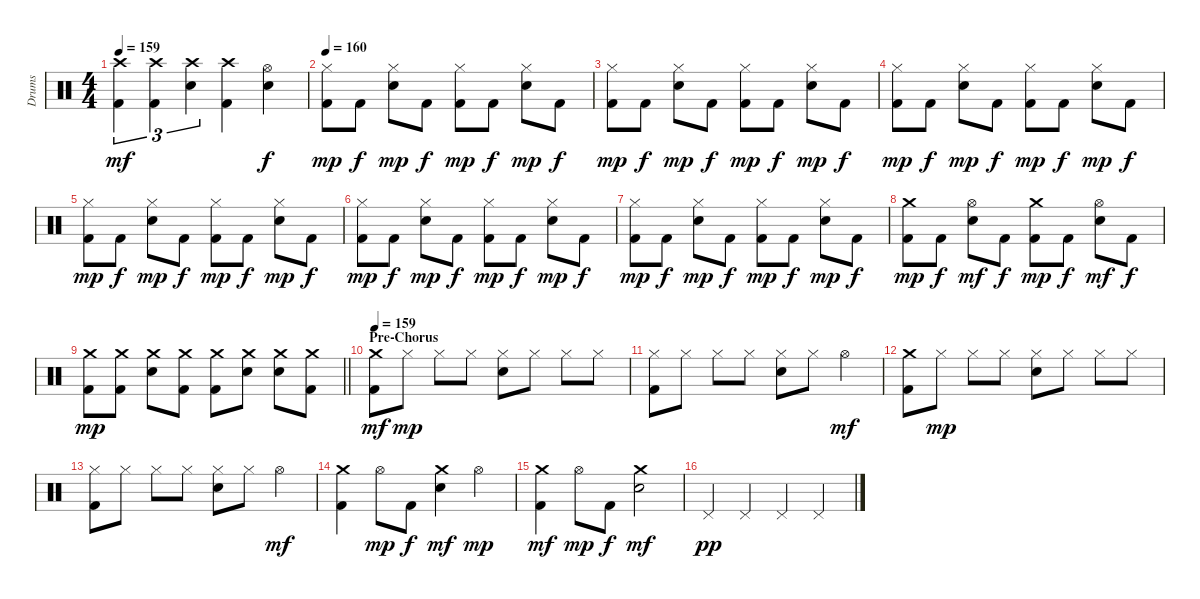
\track ("Drums" "Drums") {instrument percussion}
\staff {score}
\articulation defaults
\ts (4 4)
\tempo 159
\clef neutral
\ks c
("Crash high (hit)" "Kick (hit) 2").4{tu (3 2) dy mf} ("Crash high (hit)" "Kick (hit) 2").4{tu (3 2)} ("Crash high (hit)" "Electric Snare (hit)").4{tu (3 2)} ("Crash high (hit)" "Kick (hit) 2").4 ("Hi-Hat (open)" "Electric Snare (hit)").4{dy f} |
\tempo 160
("Hi-Hat (closed)" "Kick (hit) 2").8{dy mp} "Kick (hit) 2".8{dy f} ("Hi-Hat (closed)" "Electric Snare (hit)").8{dy mp} "Kick (hit) 2".8{dy f} ("Hi-Hat (closed)" "Kick (hit) 2").8{dy mp} "Kick (hit) 2".8{dy f} ("Hi-Hat (closed)" "Electric Snare (hit)").8{dy mp} "Kick (hit) 2".8{dy f} |
("Hi-Hat (closed)" "Kick (hit) 2").8{dy mp} "Kick (hit) 2".8{dy f} ("Hi-Hat (closed)" "Electric Snare (hit)").8{dy mp} "Kick (hit) 2".8{dy f} ("Hi-Hat (closed)" "Kick (hit) 2").8{dy mp} "Kick (hit) 2".8{dy f} ("Hi-Hat (closed)" "Electric Snare (hit)").8{dy mp} "Kick (hit) 2".8{dy f} |
("Hi-Hat (closed)" "Kick (hit) 2").8{dy mp} "Kick (hit) 2".8{dy f} ("Hi-Hat (closed)" "Electric Snare (hit)").8{dy mp} "Kick (hit) 2".8{dy f} ("Hi-Hat (closed)" "Kick (hit) 2").8{dy mp} "Kick (hit) 2".8{dy f} ("Hi-Hat (closed)" "Electric Snare (hit)").8{dy mp} "Kick (hit) 2".8{dy f} |
("Hi-Hat (closed)" "Kick (hit) 2").8{dy mp} "Kick (hit) 2".8{dy f} ("Hi-Hat (closed)" "Electric Snare (hit)").8{dy mp} "Kick (hit) 2".8{dy f} ("Hi-Hat (closed)" "Kick (hit) 2").8{dy mp} "Kick (hit) 2".8{dy f} ("Hi-Hat (closed)" "Electric Snare (hit)").8{dy mp} "Kick (hit) 2".8{dy f} |
("Hi-Hat (closed)" "Kick (hit) 2").8{dy mp} "Kick (hit) 2".8{dy f} ("Hi-Hat (closed)" "Electric Snare (hit)").8{dy mp} "Kick (hit) 2".8{dy f} ("Hi-Hat (closed)" "Kick (hit) 2").8{dy mp} "Kick (hit) 2".8{dy f} ("Hi-Hat (closed)" "Electric Snare (hit)").8{dy mp} "Kick (hit) 2".8{dy f} |
("Hi-Hat (closed)" "Kick (hit) 2").8{dy mp} "Kick (hit) 2".8{dy f} ("Hi-Hat (closed)" "Electric Snare (hit)").8{dy mp} "Kick (hit) 2".8{dy f} ("Hi-Hat (closed)" "Kick (hit) 2").8{dy mp} "Kick (hit) 2".8{dy f} ("Hi-Hat (closed)" "Electric Snare (hit)").8{dy mp} "Kick (hit) 2".8{dy f} |
("Crash medium (hit)" "Kick (hit) 2").8{dy mp} "Kick (hit) 2".8{dy f} ("Hi-Hat (open)" "Electric Snare (hit)").8{dy mf} "Kick (hit) 2".8{dy f} ("Crash medium (hit)" "Kick (hit) 2").8{dy mp} "Kick (hit) 2".8{dy f} ("Hi-Hat (open)" "Electric Snare (hit)").8{dy mf} "Kick (hit) 2".8{dy f} |
\barLineRight lightlight
("Crash medium (hit)" "Kick (hit) 2").8{dy mp} ("Crash medium (hit)" "Kick (hit) 2").8 ("Crash medium (hit)" "Electric Snare (hit)").8 ("Crash medium (hit)" "Kick (hit) 2").8 ("Crash medium (hit)" "Kick (hit) 2").8 ("Crash medium (hit)" "Electric Snare (hit)").8 ("Crash medium (hit)" "Electric Snare (hit)").8 ("Crash medium (hit)" "Kick (hit) 2").8 |
\section ("" "Pre-Chorus")
\tempo 159
("Crash medium (hit)" "Kick (hit) 2").8{dy mf} "Hi-Hat (closed)".8{dy mp} "Hi-Hat (closed)".8 "Hi-Hat (closed)".8 ("Hi-Hat (closed)" "Electric Snare (hit)").8 "Hi-Hat (closed)".8 "Hi-Hat (closed)".8 "Hi-Hat (closed)".8 |
("Hi-Hat (closed)" "Kick (hit) 2").8 "Hi-Hat (closed)".8 "Hi-Hat (closed)".8 "Hi-Hat (closed)".8 ("Hi-Hat (closed)" "Electric Snare (hit)").8 "Hi-Hat (closed)".8 "Hi-Hat (open)".4{dy mf} |
("Crash medium (hit)" "Kick (hit) 2").8 "Hi-Hat (closed)".8{dy mp} "Hi-Hat (closed)".8 "Hi-Hat (closed)".8 ("Hi-Hat (closed)" "Electric Snare (hit)").8 "Hi-Hat (closed)".8 "Hi-Hat (closed)".8 "Hi-Hat (closed)".8 |
("Hi-Hat (closed)" "Kick (hit) 2").8 "Hi-Hat (closed)".8 "Hi-Hat (closed)".8 "Hi-Hat (closed)".8 ("Hi-Hat (closed)" "Electric Snare (hit)").8 "Hi-Hat (closed)".8 "Hi-Hat (open)".4{dy mf} |
("Crash medium (hit)" "Kick (hit) 2").4 "Hi-Hat (open)".8{dy mp} "Kick (hit) 2".8{dy f} ("Crash medium (hit)" "Electric Snare (hit)").4{dy mf} "Hi-Hat (open)".4{dy mp} |
("Crash medium (hit)" "Kick (hit) 2").4{dy mf} "Hi-Hat (open)".8{dy mp} "Kick (hit) 2".8{dy f} ("Crash medium (hit)" "Electric Snare (hit)").2{dy mf} |
"Pedal Hi-Hat (hit)".4{dy pp} "Pedal Hi-Hat (hit)".4 "Pedal Hi-Hat (hit)".4 "Pedal Hi-Hat (hit)".4
